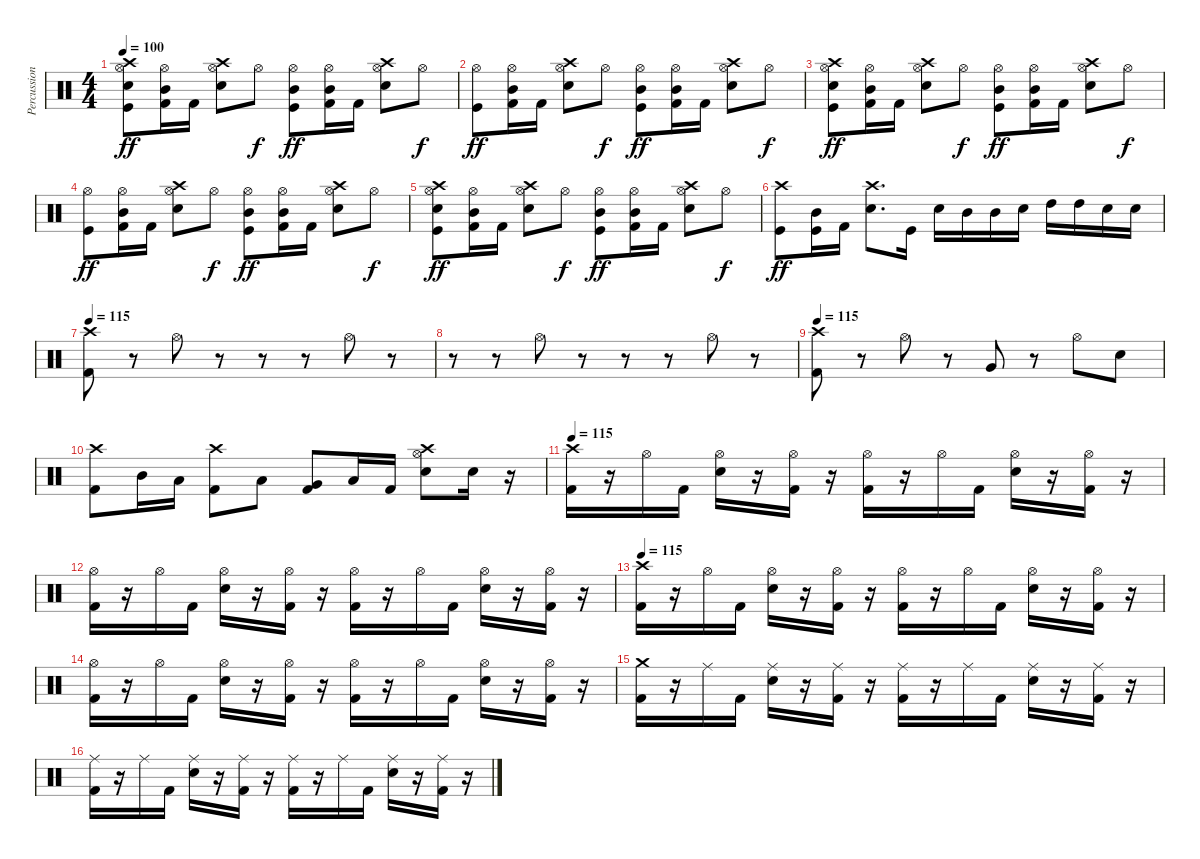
\track ("Percussion" "Percussion") {instrument percussion}
\staff {score}
\articulation defaults
\ts (4 4)
\tempo 100
\clef neutral
\ks c
("Hi-Hat (open)" "Crash high (hit)" "Snare (hit) 2" "Kick (hit)").8{dy ff} ("Hi-Hat (open)" "Mid Tom (hit)" "Kick (hit) 2").16 "Kick (hit) 2".16 ("Hi-Hat (open)" "Crash high (hit)" "Snare (hit) 2").8 "Hi-Hat (open)".8{dy f} ("Hi-Hat (open)" "Mid Tom (hit)" "Kick (hit)").8{dy ff} ("Hi-Hat (open)" "Mid Tom (hit)" "Kick (hit) 2").16 "Kick (hit) 2".16 ("Hi-Hat (open)" "Crash high (hit)" "Snare (hit) 2").8 "Hi-Hat (open)".8{dy f} |
("Hi-Hat (open)" "Kick (hit)").8{dy ff} ("Hi-Hat (open)" "Mid Tom (hit)" "Kick (hit) 2").16 "Kick (hit) 2".16 ("Hi-Hat (open)" "Crash high (hit)" "Snare (hit) 2").8 "Hi-Hat (open)".8{dy f} ("Hi-Hat (open)" "Mid Tom (hit)" "Kick (hit)").8{dy ff} ("Hi-Hat (open)" "Mid Tom (hit)" "Kick (hit) 2").16 "Kick (hit) 2".16 ("Hi-Hat (open)" "Crash high (hit)" "Snare (hit) 2").8 "Hi-Hat (open)".8{dy f} |
("Hi-Hat (open)" "Crash high (hit)" "Snare (hit) 2" "Kick (hit)").8{dy ff} ("Hi-Hat (open)" "Mid Tom (hit)" "Kick (hit) 2").16 "Kick (hit) 2".16 ("Hi-Hat (open)" "Crash high (hit)" "Snare (hit) 2").8 "Hi-Hat (open)".8{dy f} ("Hi-Hat (open)" "Mid Tom (hit)" "Kick (hit)").8{dy ff} ("Hi-Hat (open)" "Mid Tom (hit)" "Kick (hit) 2").16 "Kick (hit) 2".16 ("Hi-Hat (open)" "Crash high (hit)" "Snare (hit) 2").8 "Hi-Hat (open)".8{dy f} |
("Hi-Hat (open)" "Kick (hit)").8{dy ff} ("Hi-Hat (open)" "Mid Tom (hit)" "Kick (hit) 2").16 "Kick (hit) 2".16 ("Hi-Hat (open)" "Crash high (hit)" "Snare (hit) 2").8 "Hi-Hat (open)".8{dy f} ("Hi-Hat (open)" "Mid Tom (hit)" "Kick (hit)").8{dy ff} ("Hi-Hat (open)" "Mid Tom (hit)" "Kick (hit) 2").16 "Kick (hit) 2".16 ("Hi-Hat (open)" "Crash high (hit)" "Snare (hit) 2").8 "Hi-Hat (open)".8{dy f} |
("Hi-Hat (open)" "Crash high (hit)" "Snare (hit) 2" "Kick (hit)").8{dy ff} ("Hi-Hat (open)" "Mid Tom (hit)" "Kick (hit) 2").16 "Kick (hit) 2".16 ("Hi-Hat (open)" "Crash high (hit)" "Snare (hit) 2").8 "Hi-Hat (open)".8{dy f} ("Hi-Hat (open)" "Mid Tom (hit)" "Kick (hit)").8{dy ff} ("Hi-Hat (open)" "Mid Tom (hit)" "Kick (hit) 2").16 "Kick (hit) 2".16 ("Hi-Hat (open)" "Crash high (hit)" "Snare (hit) 2").8 "Hi-Hat (open)".8{dy f} |
("Crash high (hit)" "Kick (hit)").8{dy ff} ("Mid Tom (hit)" "Kick (hit)").16 "Kick (hit) 2".16 ("Crash high (hit)" "Snare (hit) 2").8{d} "Kick (hit)".16 "Snare (hit) 2".16 "Mid Tom (hit)".16 "Mid Tom (hit)".16 "Snare (hit) 2".16 "High Tom (hit)".16 "High Tom (hit)".16 "Snare (hit) 2".16 "Snare (hit) 2".16 |
\tempo 115
("Crash high (hit)" "Kick (hit) 2").8 r.8 "Hi-Hat (open)".8 r.8 r.8 r.8 "Hi-Hat (open)".8 r.8 |
r.8 r.8 "Hi-Hat (open)".8 r.8 r.8 r.8 "Hi-Hat (open)".8 r.8 |
\tempo 115
("Crash high (hit)" "Kick (hit) 2").8 r.8 "Hi-Hat (open)".8 r.8 "Very Low Tom (hit)".8 r.8 "Hi-Hat (open)".8 "Snare (hit) 2".8 |
("Crash high (hit)" "Kick (hit) 2").8 "Mid Tom (hit)".16 "Low Tom (hit)".16 ("Crash high (hit)" "Kick (hit) 2").8 "Low Floor Tom (hit)".8 ("Very Low Tom (hit)" "Kick (hit) 2").8 "Low Floor Tom (hit)".16 "Kick (hit) 2".16 ("Hi-Hat (open)" "Crash high (hit)" "Snare (hit) 2").8 "Snare (hit) 2".16 r.16 |
\tempo 115
("Crash high (hit)" "Kick (hit) 2").16 r.16 "Hi-Hat (open)".16 "Kick (hit) 2".16 ("Hi-Hat (open)" "Snare (hit) 2").16 r.16 ("Hi-Hat (open)" "Kick (hit) 2").16 r.16 ("Hi-Hat (open)" "Kick (hit) 2").16 r.16 "Hi-Hat (open)".16 "Kick (hit) 2".16 ("Hi-Hat (open)" "Snare (hit) 2").16 r.16 ("Hi-Hat (open)" "Kick (hit) 2").16 r.16 |
("Hi-Hat (open)" "Kick (hit) 2").16 r.16 "Hi-Hat (open)".16 "Kick (hit) 2".16 ("Hi-Hat (open)" "Snare (hit) 2").16 r.16 ("Hi-Hat (open)" "Kick (hit) 2").16 r.16 ("Hi-Hat (open)" "Kick (hit) 2").16 r.16 "Hi-Hat (open)".16 "Kick (hit) 2".16 ("Hi-Hat (open)" "Snare (hit) 2").16 r.16 ("Hi-Hat (open)" "Kick (hit) 2").16 r.16 |
\tempo 115
("Crash high (hit)" "Kick (hit) 2").16 r.16 "Hi-Hat (open)".16 "Kick (hit) 2".16 ("Hi-Hat (open)" "Snare (hit) 2").16 r.16 ("Hi-Hat (open)" "Kick (hit) 2").16 r.16 ("Hi-Hat (open)" "Kick (hit) 2").16 r.16 "Hi-Hat (open)".16 "Kick (hit) 2".16 ("Hi-Hat (open)" "Snare (hit) 2").16 r.16 ("Hi-Hat (open)" "Kick (hit) 2").16 r.16 |
("Hi-Hat (open)" "Kick (hit) 2").16 r.16 "Hi-Hat (open)".16 "Kick (hit) 2".16 ("Hi-Hat (open)" "Snare (hit) 2").16 r.16 ("Hi-Hat (open)" "Kick (hit) 2").16 r.16 ("Hi-Hat (open)" "Kick (hit) 2").16 r.16 "Hi-Hat (open)".16 "Kick (hit) 2".16 ("Hi-Hat (open)" "Snare (hit) 2").16 r.16 ("Hi-Hat (open)" "Kick (hit) 2").16 r.16 |
("Crash medium (hit)" "Kick (hit) 2").16 r.16 "Ride (middle)".16 "Kick (hit) 2".16 ("Ride (middle)" "Snare (hit) 2").16 r.16 ("Ride (middle)" "Kick (hit) 2").16 r.16 ("Ride (middle)" "Kick (hit) 2").16 r.16 "Ride (middle)".16 "Kick (hit) 2".16 ("Ride (middle)" "Snare (hit) 2").16 r.16 ("Ride (middle)" "Kick (hit) 2").16 r.16 |
("Ride (middle)" "Kick (hit) 2").16 r.16 "Ride (middle)".16 "Kick (hit) 2".16 ("Ride (middle)" "Snare (hit) 2").16 r.16 ("Ride (middle)" "Kick (hit) 2").16 r.16 ("Ride (middle)" "Kick (hit) 2").16 r.16 "Ride (middle)".16 "Kick (hit) 2".16 ("Ride (middle)" "Snare (hit) 2").16 r.16 ("Ride (middle)" "Kick (hit) 2").16 r.16
